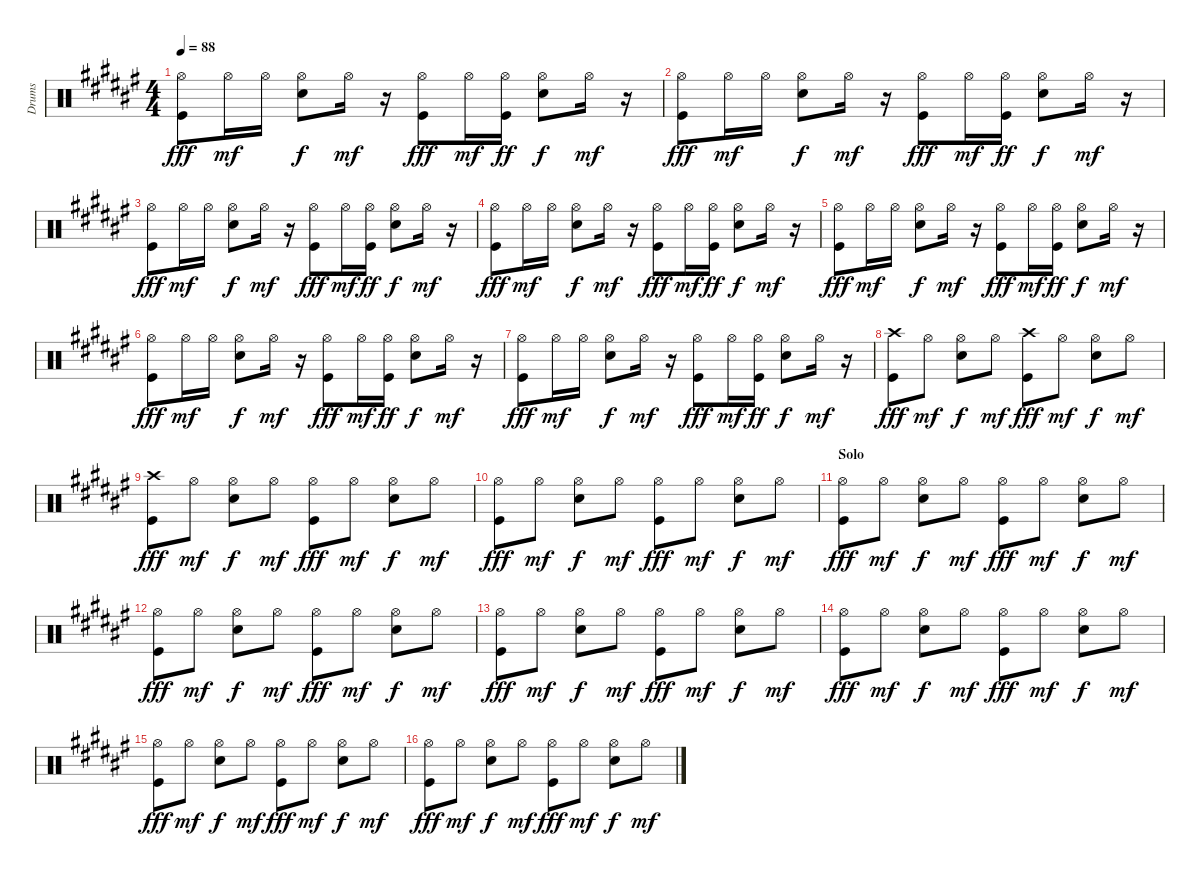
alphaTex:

\track ("Drums" "Drums") {instrument percussion}
\staff {score}
\articulation defaults
\ts (4 4)
\tempo 88
\clef neutral
\ks f#
("Hi-Hat (open)" "Kick (hit)").8{dy fff} "Hi-Hat (open)".16{dy mf} "Hi-Hat (open)".16 ("Hi-Hat (open)" "Snare (hit) 2").8{dy f} "Hi-Hat (open)".16{dy mf} r.16 ("Hi-Hat (open)" "Kick (hit)").8{dy fff} "Hi-Hat (open)".16{dy mf} ("Hi-Hat (open)" "Kick (hit)").16{dy ff} ("Hi-Hat (open)" "Snare (hit) 2").8{dy f} "Hi-Hat (open)".16{dy mf} r.16 |
("Hi-Hat (open)" "Kick (hit)").8{dy fff} "Hi-Hat (open)".16{dy mf} "Hi-Hat (open)".16 ("Hi-Hat (open)" "Snare (hit) 2").8{dy f} "Hi-Hat (open)".16{dy mf} r.16 ("Hi-Hat (open)" "Kick (hit)").8{dy fff} "Hi-Hat (open)".16{dy mf} ("Hi-Hat (open)" "Kick (hit)").16{dy ff} ("Hi-Hat (open)" "Snare (hit) 2").8{dy f} "Hi-Hat (open)".16{dy mf} r.16 |
("Hi-Hat (open)" "Kick (hit)").8{dy fff} "Hi-Hat (open)".16{dy mf} "Hi-Hat (open)".16 ("Hi-Hat (open)" "Snare (hit) 2").8{dy f} "Hi-Hat (open)".16{dy mf} r.16 ("Hi-Hat (open)" "Kick (hit)").8{dy fff} "Hi-Hat (open)".16{dy mf} ("Hi-Hat (open)" "Kick (hit)").16{dy ff} ("Hi-Hat (open)" "Snare (hit) 2").8{dy f} "Hi-Hat (open)".16{dy mf} r.16 |
("Hi-Hat (open)" "Kick (hit)").8{dy fff} "Hi-Hat (open)".16{dy mf} "Hi-Hat (open)".16 ("Hi-Hat (open)" "Snare (hit) 2").8{dy f} "Hi-Hat (open)".16{dy mf} r.16 ("Hi-Hat (open)" "Kick (hit)").8{dy fff} "Hi-Hat (open)".16{dy mf} ("Hi-Hat (open)" "Kick (hit)").16{dy ff} ("Hi-Hat (open)" "Snare (hit) 2").8{dy f} "Hi-Hat (open)".16{dy mf} r.16 |
("Hi-Hat (open)" "Kick (hit)").8{dy fff} "Hi-Hat (open)".16{dy mf} "Hi-Hat (open)".16 ("Hi-Hat (open)" "Snare (hit) 2").8{dy f} "Hi-Hat (open)".16{dy mf} r.16 ("Hi-Hat (open)" "Kick (hit)").8{dy fff} "Hi-Hat (open)".16{dy mf} ("Hi-Hat (open)" "Kick (hit)").16{dy ff} ("Hi-Hat (open)" "Snare (hit) 2").8{dy f} "Hi-Hat (open)".16{dy mf} r.16 |
("Hi-Hat (open)" "Kick (hit)").8{dy fff} "Hi-Hat (open)".16{dy mf} "Hi-Hat (open)".16 ("Hi-Hat (open)" "Snare (hit) 2").8{dy f} "Hi-Hat (open)".16{dy mf} r.16 ("Hi-Hat (open)" "Kick (hit)").8{dy fff} "Hi-Hat (open)".16{dy mf} ("Hi-Hat (open)" "Kick (hit)").16{dy ff} ("Hi-Hat (open)" "Snare (hit) 2").8{dy f} "Hi-Hat (open)".16{dy mf} r.16 |
("Hi-Hat (open)" "Kick (hit)").8{dy fff} "Hi-Hat (open)".16{dy mf} "Hi-Hat (open)".16 ("Hi-Hat (open)" "Snare (hit) 2").8{dy f} "Hi-Hat (open)".16{dy mf} r.16 ("Hi-Hat (open)" "Kick (hit)").8{dy fff} "Hi-Hat (open)".16{dy mf} ("Hi-Hat (open)" "Kick (hit)").16{dy ff} ("Hi-Hat (open)" "Snare (hit) 2").8{dy f} "Hi-Hat (open)".16{dy mf} r.16 |
("Crash high (hit)" "Kick (hit)").8{dy fff} "Hi-Hat (open)".8{dy mf} ("Hi-Hat (open)" "Snare (hit) 2").8{dy f} "Hi-Hat (open)".8{dy mf} ("Crash high (hit)" "Kick (hit)").8{dy fff} "Hi-Hat (open)".8{dy mf} ("Hi-Hat (open)" "Snare (hit) 2").8{dy f} "Hi-Hat (open)".8{dy mf} |
("Crash high (hit)" "Kick (hit)").8{dy fff} "Hi-Hat (open)".8{dy mf} ("Hi-Hat (open)" "Snare (hit) 2").8{dy f} "Hi-Hat (open)".8{dy mf} ("Hi-Hat (open)" "Kick (hit)").8{dy fff} "Hi-Hat (open)".8{dy mf} ("Hi-Hat (open)" "Snare (hit) 2").8{dy f} "Hi-Hat (open)".8{dy mf} |
("Hi-Hat (open)" "Kick (hit)").8{dy fff} "Hi-Hat (open)".8{dy mf} ("Hi-Hat (open)" "Snare (hit) 2").8{dy f} "Hi-Hat (open)".8{dy mf} ("Hi-Hat (open)" "Kick (hit)").8{dy fff} "Hi-Hat (open)".8{dy mf} ("Hi-Hat (open)" "Snare (hit) 2").8{dy f} "Hi-Hat (open)".8{dy mf} |
\section ("" "Solo")
("Hi-Hat (open)" "Kick (hit)").8{dy fff} "Hi-Hat (open)".8{dy mf} ("Hi-Hat (open)" "Snare (hit) 2").8{dy f} "Hi-Hat (open)".8{dy mf} ("Hi-Hat (open)" "Kick (hit)").8{dy fff} "Hi-Hat (open)".8{dy mf} ("Hi-Hat (open)" "Snare (hit) 2").8{dy f} "Hi-Hat (open)".8{dy mf} |
("Hi-Hat (open)" "Kick (hit)").8{dy fff} "Hi-Hat (open)".8{dy mf} ("Hi-Hat (open)" "Snare (hit) 2").8{dy f} "Hi-Hat (open)".8{dy mf} ("Hi-Hat (open)" "Kick (hit)").8{dy fff} "Hi-Hat (open)".8{dy mf} ("Hi-Hat (open)" "Snare (hit) 2").8{dy f} "Hi-Hat (open)".8{dy mf} |
("Hi-Hat (open)" "Kick (hit)").8{dy fff} "Hi-Hat (open)".8{dy mf} ("Hi-Hat (open)" "Snare (hit) 2").8{dy f} "Hi-Hat (open)".8{dy mf} ("Hi-Hat (open)" "Kick (hit)").8{dy fff} "Hi-Hat (open)".8{dy mf} ("Hi-Hat (open)" "Snare (hit) 2").8{dy f} "Hi-Hat (open)".8{dy mf} |
("Hi-Hat (open)" "Kick (hit)").8{dy fff} "Hi-Hat (open)".8{dy mf} ("Hi-Hat (open)" "Snare (hit) 2").8{dy f} "Hi-Hat (open)".8{dy mf} ("Hi-Hat (open)" "Kick (hit)").8{dy fff} "Hi-Hat (open)".8{dy mf} ("Hi-Hat (open)" "Snare (hit) 2").8{dy f} "Hi-Hat (open)".8{dy mf} |
("Hi-Hat (open)" "Kick (hit)").8{dy fff} "Hi-Hat (open)".8{dy mf} ("Hi-Hat (open)" "Snare (hit) 2").8{dy f} "Hi-Hat (open)".8{dy mf} ("Hi-Hat (open)" "Kick (hit)").8{dy fff} "Hi-Hat (open)".8{dy mf} ("Hi-Hat (open)" "Snare (hit) 2").8{dy f} "Hi-Hat (open)".8{dy mf} |
("Hi-Hat (open)" "Kick (hit)").8{dy fff} "Hi-Hat (open)".8{dy mf} ("Hi-Hat (open)" "Snare (hit) 2").8{dy f} "Hi-Hat (open)".8{dy mf} ("Hi-Hat (open)" "Kick (hit)").8{dy fff} "Hi-Hat (open)".8{dy mf} ("Hi-Hat (open)" "Snare (hit) 2").8{dy f} "Hi-Hat (open)".8{dy mf}
